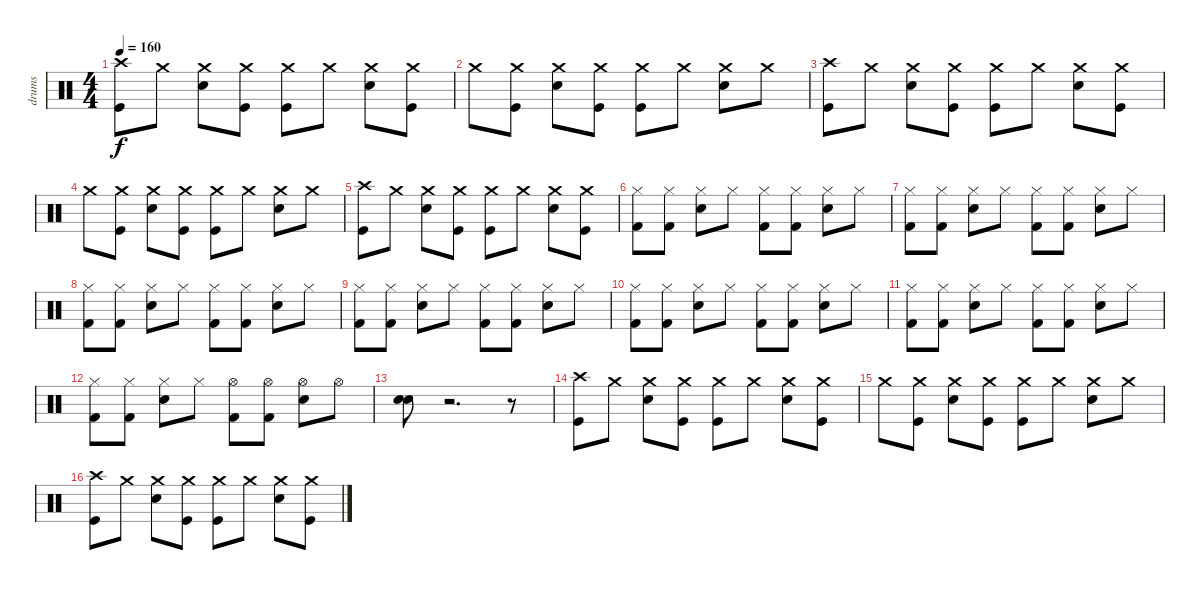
\track ("drums" "drums") {instrument percussion}
\staff {score}
\articulation defaults
\ts (4 4)
\tempo 160
\clef neutral
\ks c
("Crash high (hit)" "Kick (hit)").8{dy f} "Crash medium (hit)".8 ("Crash medium (hit)" "Snare (hit) 2").8 ("Crash medium (hit)" "Kick (hit)").8 ("Crash medium (hit)" "Kick (hit)").8 "Crash medium (hit)".8 ("Crash medium (hit)" "Snare (hit) 2").8 ("Crash medium (hit)" "Kick (hit)").8 |
"Crash medium (hit)".8 ("Crash medium (hit)" "Kick (hit)").8 ("Crash medium (hit)" "Snare (hit) 2").8 ("Crash medium (hit)" "Kick (hit)").8 ("Crash medium (hit)" "Kick (hit)").8 "Crash medium (hit)".8 ("Crash medium (hit)" "Snare (hit) 2").8 "Crash medium (hit)".8 |
("Crash high (hit)" "Kick (hit)").8 "Crash medium (hit)".8 ("Crash medium (hit)" "Snare (hit) 2").8 ("Crash medium (hit)" "Kick (hit)").8 ("Crash medium (hit)" "Kick (hit)").8 "Crash medium (hit)".8 ("Crash medium (hit)" "Snare (hit) 2").8 ("Crash medium (hit)" "Kick (hit)").8 |
"Crash medium (hit)".8 ("Crash medium (hit)" "Kick (hit)").8 ("Crash medium (hit)" "Snare (hit) 2").8 ("Crash medium (hit)" "Kick (hit)").8 ("Crash medium (hit)" "Kick (hit)").8 "Crash medium (hit)".8 ("Crash medium (hit)" "Snare (hit) 2").8 "Crash medium (hit)".8 |
("Crash high (hit)" "Kick (hit)").8 "Crash medium (hit)".8 ("Crash medium (hit)" "Snare (hit) 2").8 ("Crash medium (hit)" "Kick (hit)").8 ("Crash medium (hit)" "Kick (hit)").8 "Crash medium (hit)".8 ("Crash medium (hit)" "Snare (hit) 2").8 ("Crash medium (hit)" "Kick (hit)").8 |
("Hi-Hat (closed)" "Kick (hit) 2").8 ("Hi-Hat (closed)" "Kick (hit) 2").8 ("Hi-Hat (closed)" "Electric Snare (hit)").8 "Hi-Hat (closed)".8 ("Hi-Hat (closed)" "Kick (hit) 2").8 ("Hi-Hat (closed)" "Kick (hit) 2").8 ("Hi-Hat (closed)" "Electric Snare (hit)").8 "Hi-Hat (closed)".8 |
("Hi-Hat (closed)" "Kick (hit) 2").8 ("Hi-Hat (closed)" "Kick (hit) 2").8 ("Hi-Hat (closed)" "Electric Snare (hit)").8 "Hi-Hat (closed)".8 ("Hi-Hat (closed)" "Kick (hit) 2").8 ("Hi-Hat (closed)" "Kick (hit) 2").8 ("Hi-Hat (closed)" "Electric Snare (hit)").8 "Hi-Hat (closed)".8 |
("Hi-Hat (closed)" "Kick (hit) 2").8 ("Hi-Hat (closed)" "Kick (hit) 2").8 ("Hi-Hat (closed)" "Electric Snare (hit)").8 "Hi-Hat (closed)".8 ("Hi-Hat (closed)" "Kick (hit) 2").8 ("Hi-Hat (closed)" "Kick (hit) 2").8 ("Hi-Hat (closed)" "Electric Snare (hit)").8 "Hi-Hat (closed)".8 |
("Hi-Hat (closed)" "Kick (hit) 2").8 ("Hi-Hat (closed)" "Kick (hit) 2").8 ("Hi-Hat (closed)" "Electric Snare (hit)").8 "Hi-Hat (closed)".8 ("Hi-Hat (closed)" "Kick (hit) 2").8 ("Hi-Hat (closed)" "Kick (hit) 2").8 ("Hi-Hat (closed)" "Electric Snare (hit)").8 "Hi-Hat (closed)".8 |
("Hi-Hat (closed)" "Kick (hit) 2").8 ("Hi-Hat (closed)" "Kick (hit) 2").8 ("Hi-Hat (closed)" "Electric Snare (hit)").8 "Hi-Hat (closed)".8 ("Hi-Hat (closed)" "Kick (hit) 2").8 ("Hi-Hat (closed)" "Kick (hit) 2").8 ("Hi-Hat (closed)" "Electric Snare (hit)").8 "Hi-Hat (closed)".8 |
("Hi-Hat (closed)" "Kick (hit) 2").8 ("Hi-Hat (closed)" "Kick (hit) 2").8 ("Hi-Hat (closed)" "Electric Snare (hit)").8 "Hi-Hat (closed)".8 ("Hi-Hat (closed)" "Kick (hit) 2").8 ("Hi-Hat (closed)" "Kick (hit) 2").8 ("Hi-Hat (closed)" "Electric Snare (hit)").8 "Hi-Hat (closed)".8 |
("Hi-Hat (closed)" "Kick (hit) 2").8 ("Hi-Hat (closed)" "Kick (hit) 2").8 ("Hi-Hat (closed)" "Electric Snare (hit)").8 "Hi-Hat (closed)".8 ("Hi-Hat (open)" "Kick (hit) 2").8 ("Hi-Hat (open)" "Kick (hit) 2").8 ("Hi-Hat (open)" "Electric Snare (hit)").8 "Hi-Hat (open)".8 |
("Electric Snare (hit)" "Electric Snare (hit)").8 r.2{d} r.8 |
("Crash high (hit)" "Kick (hit)").8 "Crash medium (hit)".8 ("Crash medium (hit)" "Snare (hit) 2").8 ("Crash medium (hit)" "Kick (hit)").8 ("Crash medium (hit)" "Kick (hit)").8 "Crash medium (hit)".8 ("Crash medium (hit)" "Snare (hit) 2").8 ("Crash medium (hit)" "Kick (hit)").8 |
"Crash medium (hit)".8 ("Crash medium (hit)" "Kick (hit)").8 ("Crash medium (hit)" "Snare (hit) 2").8 ("Crash medium (hit)" "Kick (hit)").8 ("Crash medium (hit)" "Kick (hit)").8 "Crash medium (hit)".8 ("Crash medium (hit)" "Snare (hit) 2").8 "Crash medium (hit)".8 |
("Crash high (hit)" "Kick (hit)").8 "Crash medium (hit)".8 ("Crash medium (hit)" "Snare (hit) 2").8 ("Crash medium (hit)" "Kick (hit)").8 ("Crash medium (hit)" "Kick (hit)").8 "Crash medium (hit)".8 ("Crash medium (hit)" "Snare (hit) 2").8 ("Crash medium (hit)" "Kick (hit)").8
